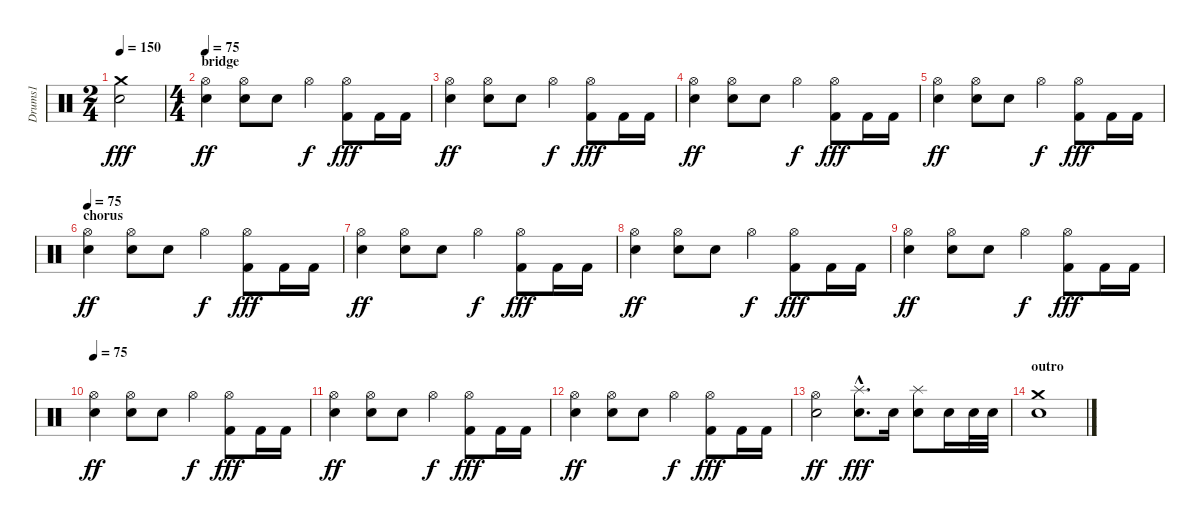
\track ("Drums1" "Drums1") {instrument percussion}
\staff {score}
\articulation defaults
\ts (2 4)
\tempo 150
\clef neutral
\ks c
("Crash medium (hit)" "Electric Snare (hit)").2{dy fff} |
\ts (4 4)
\section ("" "bridge")
\tempo 75
("Hi-Hat (open)" "Snare (hit) 2").4{dy ff} ("Hi-Hat (open)" "Snare (hit) 2").8 "Snare (hit) 2".8 "Hi-Hat (open)".4{dy f} ("Hi-Hat (open)" "Kick (hit) 2").8{dy fff} "Kick (hit) 2".16 "Kick (hit) 2".16 |
("Hi-Hat (open)" "Snare (hit) 2").4{dy ff} ("Hi-Hat (open)" "Snare (hit) 2").8 "Snare (hit) 2".8 "Hi-Hat (open)".4{dy f} ("Hi-Hat (open)" "Kick (hit) 2").8{dy fff} "Kick (hit) 2".16 "Kick (hit) 2".16 |
("Hi-Hat (open)" "Snare (hit) 2").4{dy ff} ("Hi-Hat (open)" "Snare (hit) 2").8 "Snare (hit) 2".8 "Hi-Hat (open)".4{dy f} ("Hi-Hat (open)" "Kick (hit) 2").8{dy fff} "Kick (hit) 2".16 "Kick (hit) 2".16 |
("Hi-Hat (open)" "Snare (hit) 2").4{dy ff} ("Hi-Hat (open)" "Snare (hit) 2").8 "Snare (hit) 2".8 "Hi-Hat (open)".4{dy f} ("Hi-Hat (open)" "Kick (hit) 2").8{dy fff} "Kick (hit) 2".16 "Kick (hit) 2".16 |
\section ("" "chorus")
\tempo 75
("Hi-Hat (open)" "Snare (hit) 2").4{dy ff} ("Hi-Hat (open)" "Snare (hit) 2").8 "Snare (hit) 2".8 "Hi-Hat (open)".4{dy f} ("Hi-Hat (open)" "Kick (hit) 2").8{dy fff} "Kick (hit) 2".16 "Kick (hit) 2".16 |
("Hi-Hat (open)" "Snare (hit) 2").4{dy ff} ("Hi-Hat (open)" "Snare (hit) 2").8 "Snare (hit) 2".8 "Hi-Hat (open)".4{dy f} ("Hi-Hat (open)" "Kick (hit) 2").8{dy fff} "Kick (hit) 2".16 "Kick (hit) 2".16 |
("Hi-Hat (open)" "Snare (hit) 2").4{dy ff} ("Hi-Hat (open)" "Snare (hit) 2").8 "Snare (hit) 2".8 "Hi-Hat (open)".4{dy f} ("Hi-Hat (open)" "Kick (hit) 2").8{dy fff} "Kick (hit) 2".16 "Kick (hit) 2".16 |
("Hi-Hat (open)" "Snare (hit) 2").4{dy ff} ("Hi-Hat (open)" "Snare (hit) 2").8 "Snare (hit) 2".8 "Hi-Hat (open)".4{dy f} ("Hi-Hat (open)" "Kick (hit) 2").8{dy fff} "Kick (hit) 2".16 "Kick (hit) 2".16 |
\tempo 75
("Hi-Hat (open)" "Snare (hit) 2").4{dy ff} ("Hi-Hat (open)" "Snare (hit) 2").8 "Snare (hit) 2".8 "Hi-Hat (open)".4{dy f} ("Hi-Hat (open)" "Kick (hit) 2").8{dy fff} "Kick (hit) 2".16 "Kick (hit) 2".16 |
("Hi-Hat (open)" "Snare (hit) 2").4{dy ff} ("Hi-Hat (open)" "Snare (hit) 2").8 "Snare (hit) 2".8 "Hi-Hat (open)".4{dy f} ("Hi-Hat (open)" "Kick (hit) 2").8{dy fff} "Kick (hit) 2".16 "Kick (hit) 2".16 |
("Hi-Hat (open)" "Snare (hit) 2").4{dy ff} ("Hi-Hat (open)" "Snare (hit) 2").8 "Snare (hit) 2".8 "Hi-Hat (open)".4{dy f} ("Hi-Hat (open)" "Kick (hit) 2").8{dy fff} "Kick (hit) 2".16 "Kick (hit) 2".16 |
("Hi-Hat (open)" "Snare (hit) 2").2{dy ff} ("Splash (hit)"{hac} "Electric Snare (hit)"{hac}).8{d dy fff} "Electric Snare (hit)".16 ("Splash (hit)" "Electric Snare (hit)").8 "Electric Snare (hit)".16 "Electric Snare (hit)".32 "Electric Snare (hit)".32 |
\section ("" "outro")
("Crash medium (hit)" "Electric Snare (hit)").1
